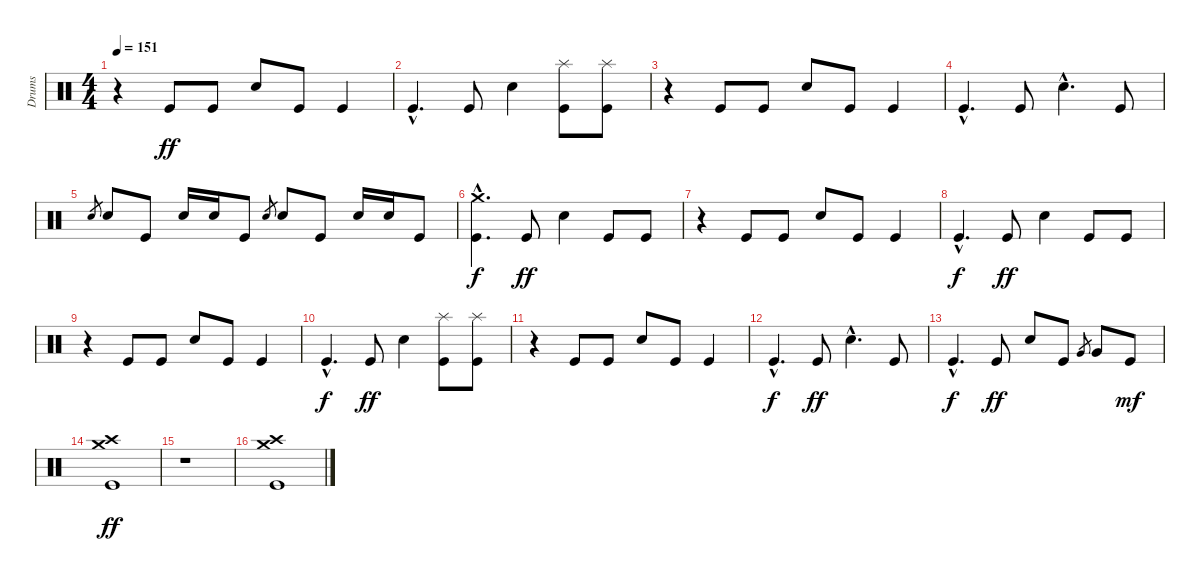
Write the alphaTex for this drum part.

\track ("Drums" "Drums") {instrument percussion}
\staff {score}
\articulation defaults
\ts (4 4)
\tempo 151
\clef neutral
\ks c
r.4{dy ff} "Kick (hit)".8 "Kick (hit)".8 "Snare (hit) 2".8 "Kick (hit)".8 "Kick (hit)".4 |
"Kick (hit)"{hac}.4{d} "Kick (hit)".8 "Snare (hit) 2".4 ("Splash (hit)" "Kick (hit)").8 ("Splash (hit)" "Kick (hit)").8 |
r.4 "Kick (hit)".8 "Kick (hit)".8 "Snare (hit) 2".8 "Kick (hit)".8 "Kick (hit)".4 |
"Kick (hit)"{hac}.4{d} "Kick (hit)".8 "Snare (hit) 2"{hac}.4{d} "Kick (hit)".8 |
"Snare (hit) 2".8{gr} "Snare (hit) 2".8 "Kick (hit)".8 "Snare (hit) 2".16 "Snare (hit) 2".16 "Kick (hit)".8 "Snare (hit) 2".8{gr} "Snare (hit) 2".8 "Kick (hit)".8 "Snare (hit) 2".16 "Snare (hit) 2".16 "Kick (hit)".8 |
("Crash medium (hit)"{hac} "Kick (hit)"{hac}).4{d dy f} "Kick (hit)".8{dy ff} "Snare (hit) 2".4 "Kick (hit)".8 "Kick (hit)".8 |
r.4 "Kick (hit)".8 "Kick (hit)".8 "Snare (hit) 2".8 "Kick (hit)".8 "Kick (hit)".4 |
"Kick (hit)"{hac}.4{d dy f} "Kick (hit)".8{dy ff} "Snare (hit) 2".4 "Kick (hit)".8 "Kick (hit)".8 |
r.4 "Kick (hit)".8 "Kick (hit)".8 "Snare (hit) 2".8 "Kick (hit)".8 "Kick (hit)".4 |
"Kick (hit)"{hac}.4{d dy f} "Kick (hit)".8{dy ff} "Snare (hit) 2".4 ("Splash (hit)" "Kick (hit)").8 ("Splash (hit)" "Kick (hit)").8 |
r.4 "Kick (hit)".8 "Kick (hit)".8 "Snare (hit) 2".8 "Kick (hit)".8 "Kick (hit)".4 |
"Kick (hit)"{hac}.4{d dy f} "Kick (hit)".8{dy ff} "Snare (hit) 2"{hac}.4{d} "Kick (hit)".8 |
"Kick (hit)"{hac}.4{d dy f} "Kick (hit)".8{dy ff} "Snare (hit) 2".8 "Kick (hit)".8 "Very Low Tom (hit)".8{gr} "Very Low Tom (hit)".8 "Kick (hit)".8{dy mf} |
("Crash medium (hit)" "Crash high (hit)" "Kick (hit)").1{dy ff} |
r.1 |
("Kick (hit)" "Crash high (hit)" "Crash medium (hit)").1
